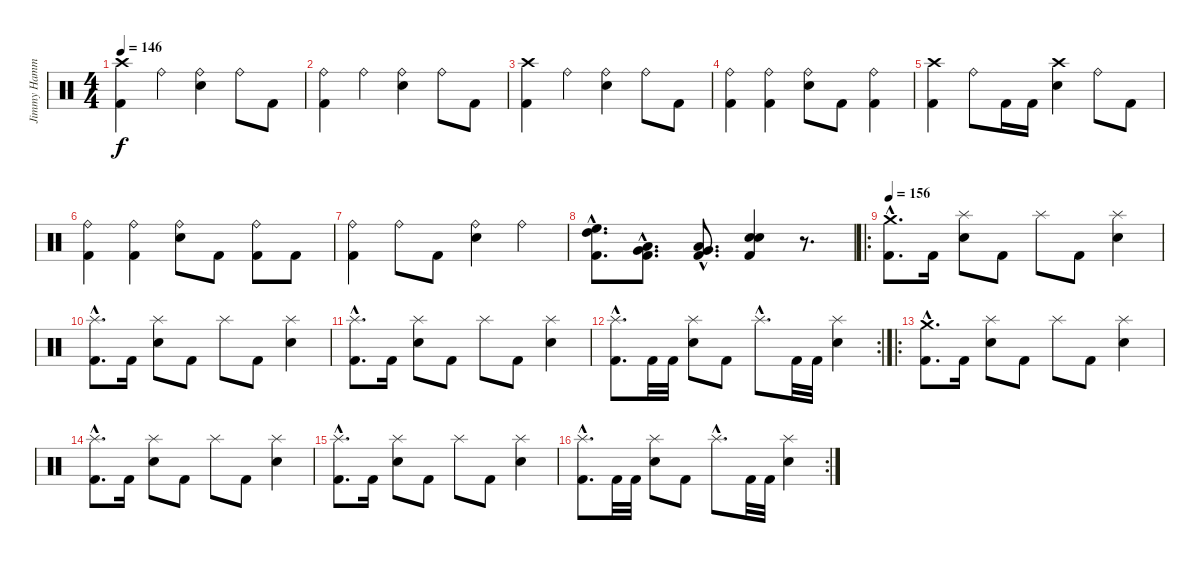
\track ("Jimmy Hammer" "Jimmy Hamm") {instrument percussion}
\staff {score}
\articulation defaults
\ts (4 4)
\tempo 146
\clef neutral
\ks c
("Kick (hit) 2" "Crash high (hit)").4{dy f} "Ride (bell)".4 ("Snare (hit) 2" "Ride (bell)").4 "Ride (bell)".8 "Kick (hit) 2".8 |
("Kick (hit) 2" "Ride (bell)").4 "Ride (bell)".4 ("Snare (hit) 2" "Ride (bell)").4 "Ride (bell)".8 "Kick (hit) 2".8 |
("Kick (hit) 2" "Crash high (hit)").4 "Ride (bell)".4 ("Snare (hit) 2" "Ride (bell)").4 "Ride (bell)".8 "Kick (hit) 2".8 |
("Kick (hit) 2" "Ride (bell)").4 ("Kick (hit) 2" "Ride (bell)").4 ("Snare (hit) 2" "Ride (bell)").8 "Kick (hit) 2".8 ("Kick (hit) 2" "Ride (bell)").4 |
("Kick (hit) 2" "Crash high (hit)").4 "Ride (bell)".8 "Kick (hit) 2".16 "Kick (hit) 2".16 ("Snare (hit) 2" "Crash high (hit)").4 "Ride (bell)".8 "Kick (hit) 2".8 |
("Kick (hit) 2" "Ride (bell)").4 ("Kick (hit) 2" "Ride (bell)").4 ("Snare (hit) 2" "Ride (bell)").8 "Kick (hit) 2".8 ("Kick (hit) 2" "Ride (bell)").8 "Kick (hit) 2".8 |
("Kick (hit) 2" "Ride (bell)").4 "Ride (bell)".8 "Kick (hit) 2".8 ("Snare (hit) 2" "Ride (bell)").4 "Ride (bell)".4 |
("Kick (hit) 2"{hac} "High Tom (hit)"{hac} "High Floor Tom (hit)"{hac}).8{d} ("Kick (hit) 2"{hac} "Low Floor Tom (hit)"{hac} "Very Low Tom (hit)"{hac}).8{d} ("Kick (hit) 2"{hac} "Low Floor Tom (hit)"{hac} "Very Low Tom (hit)"{hac}).8{d} ("Kick (hit) 2" "Snare (hit) 2" "Electric Snare (hit)").4 r.8{d} |
\ro
\tempo 156
("Kick (hit) 2"{hac} "Crash medium (hit)"{hac}).8{d} "Kick (hit) 2".16 ("Snare (hit) 2" "Splash (hit)").8 "Kick (hit) 2".8 "Splash (hit)".8 "Kick (hit) 2".8 ("Snare (hit) 2" "Splash (hit)").4 |
("Kick (hit) 2"{hac} "Splash (hit)"{hac}).8{d} "Kick (hit) 2".16 ("Snare (hit) 2" "Splash (hit)").8 "Kick (hit) 2".8 "Splash (hit)".8 "Kick (hit) 2".8 ("Snare (hit) 2" "Splash (hit)").4 |
("Kick (hit) 2"{hac} "Splash (hit)"{hac}).8{d} "Kick (hit) 2".16 ("Snare (hit) 2" "Splash (hit)").8 "Kick (hit) 2".8 "Splash (hit)".8 "Kick (hit) 2".8 ("Snare (hit) 2" "Splash (hit)").4 |
\rc 2
("Kick (hit) 2"{hac} "Splash (hit)"{hac}).8{d} "Kick (hit) 2".32 "Kick (hit) 2".32 ("Snare (hit) 2" "Splash (hit)").8 "Kick (hit) 2".8 "Splash (hit)"{hac}.8{d} "Kick (hit) 2".32 "Kick (hit) 2".32 ("Snare (hit) 2" "Splash (hit)").4 |
\ro
("Kick (hit) 2"{hac} "Crash medium (hit)"{hac}).8{d} "Kick (hit) 2".16 ("Snare (hit) 2" "Splash (hit)").8 "Kick (hit) 2".8 "Splash (hit)".8 "Kick (hit) 2".8 ("Snare (hit) 2" "Splash (hit)").4 |
("Kick (hit) 2"{hac} "Splash (hit)"{hac}).8{d} "Kick (hit) 2".16 ("Snare (hit) 2" "Splash (hit)").8 "Kick (hit) 2".8 "Splash (hit)".8 "Kick (hit) 2".8 ("Snare (hit) 2" "Splash (hit)").4 |
("Kick (hit) 2"{hac} "Splash (hit)"{hac}).8{d} "Kick (hit) 2".16 ("Snare (hit) 2" "Splash (hit)").8 "Kick (hit) 2".8 "Splash (hit)".8 "Kick (hit) 2".8 ("Snare (hit) 2" "Splash (hit)").4 |
\rc 2
("Kick (hit) 2"{hac} "Splash (hit)"{hac}).8{d} "Kick (hit) 2".32 "Kick (hit) 2".32 ("Snare (hit) 2" "Splash (hit)").8 "Kick (hit) 2".8 "Splash (hit)"{hac}.8{d} "Kick (hit) 2".32 "Kick (hit) 2".32 ("Snare (hit) 2" "Splash (hit)").4
